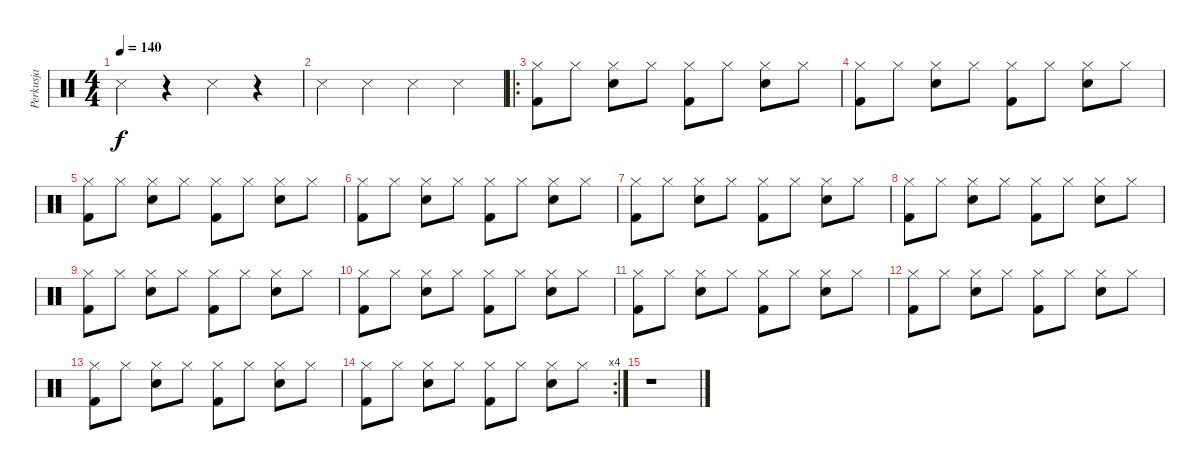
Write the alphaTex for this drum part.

\track ("Perkusja" "Perkusja") {instrument percussion}
\staff {score}
\articulation defaults
\ts (4 4)
\tempo 140
\clef neutral
\ks c "Snare (side stick) 3".4{dy f}
r.4 "Snare (side stick) 3".4 r.4 |
"Snare (side stick) 3".4 "Snare (side stick) 3".4 "Snare (side stick) 3".4 "Snare (side stick) 3".4 |
\ro
("Kick (hit) 2" "Hi-Hat (closed)").8 "Hi-Hat (closed)".8 ("Snare (hit) 2" "Hi-Hat (closed)").8 "Hi-Hat (closed)".8 ("Kick (hit) 2" "Hi-Hat (closed)").8 "Hi-Hat (closed)".8 ("Snare (hit) 2" "Hi-Hat (closed)").8 "Hi-Hat (closed)".8 |
("Kick (hit) 2" "Hi-Hat (closed)").8 "Hi-Hat (closed)".8 ("Snare (hit) 2" "Hi-Hat (closed)").8 "Hi-Hat (closed)".8 ("Kick (hit) 2" "Hi-Hat (closed)").8 "Hi-Hat (closed)".8 ("Snare (hit) 2" "Hi-Hat (closed)").8 "Hi-Hat (closed)".8 |
("Kick (hit) 2" "Hi-Hat (closed)").8 "Hi-Hat (closed)".8 ("Snare (hit) 2" "Hi-Hat (closed)").8 "Hi-Hat (closed)".8 ("Kick (hit) 2" "Hi-Hat (closed)").8 "Hi-Hat (closed)".8 ("Snare (hit) 2" "Hi-Hat (closed)").8 "Hi-Hat (closed)".8 |
("Kick (hit) 2" "Hi-Hat (closed)").8 "Hi-Hat (closed)".8 ("Snare (hit) 2" "Hi-Hat (closed)").8 "Hi-Hat (closed)".8 ("Kick (hit) 2" "Hi-Hat (closed)").8 "Hi-Hat (closed)".8 ("Snare (hit) 2" "Hi-Hat (closed)").8 "Hi-Hat (closed)".8 |
("Kick (hit) 2" "Hi-Hat (closed)").8 "Hi-Hat (closed)".8 ("Snare (hit) 2" "Hi-Hat (closed)").8 "Hi-Hat (closed)".8 ("Kick (hit) 2" "Hi-Hat (closed)").8 "Hi-Hat (closed)".8 ("Snare (hit) 2" "Hi-Hat (closed)").8 "Hi-Hat (closed)".8 |
("Kick (hit) 2" "Hi-Hat (closed)").8 "Hi-Hat (closed)".8 ("Snare (hit) 2" "Hi-Hat (closed)").8 "Hi-Hat (closed)".8 ("Kick (hit) 2" "Hi-Hat (closed)").8 "Hi-Hat (closed)".8 ("Snare (hit) 2" "Hi-Hat (closed)").8 "Hi-Hat (closed)".8 |
("Kick (hit) 2" "Hi-Hat (closed)").8 "Hi-Hat (closed)".8 ("Snare (hit) 2" "Hi-Hat (closed)").8 "Hi-Hat (closed)".8 ("Kick (hit) 2" "Hi-Hat (closed)").8 "Hi-Hat (closed)".8 ("Snare (hit) 2" "Hi-Hat (closed)").8 "Hi-Hat (closed)".8 |
("Kick (hit) 2" "Hi-Hat (closed)").8 "Hi-Hat (closed)".8 ("Snare (hit) 2" "Hi-Hat (closed)").8 "Hi-Hat (closed)".8 ("Kick (hit) 2" "Hi-Hat (closed)").8 "Hi-Hat (closed)".8 ("Snare (hit) 2" "Hi-Hat (closed)").8 "Hi-Hat (closed)".8 |
("Kick (hit) 2" "Hi-Hat (closed)").8 "Hi-Hat (closed)".8 ("Snare (hit) 2" "Hi-Hat (closed)").8 "Hi-Hat (closed)".8 ("Kick (hit) 2" "Hi-Hat (closed)").8 "Hi-Hat (closed)".8 ("Snare (hit) 2" "Hi-Hat (closed)").8 "Hi-Hat (closed)".8 |
("Kick (hit) 2" "Hi-Hat (closed)").8 "Hi-Hat (closed)".8 ("Snare (hit) 2" "Hi-Hat (closed)").8 "Hi-Hat (closed)".8 ("Kick (hit) 2" "Hi-Hat (closed)").8 "Hi-Hat (closed)".8 ("Snare (hit) 2" "Hi-Hat (closed)").8 "Hi-Hat (closed)".8 |
("Kick (hit) 2" "Hi-Hat (closed)").8 "Hi-Hat (closed)".8 ("Snare (hit) 2" "Hi-Hat (closed)").8 "Hi-Hat (closed)".8 ("Kick (hit) 2" "Hi-Hat (closed)").8 "Hi-Hat (closed)".8 ("Snare (hit) 2" "Hi-Hat (closed)").8 "Hi-Hat (closed)".8 |
\rc 4
("Kick (hit) 2" "Hi-Hat (closed)").8 "Hi-Hat (closed)".8 ("Snare (hit) 2" "Hi-Hat (closed)").8 "Hi-Hat (closed)".8 ("Kick (hit) 2" "Hi-Hat (closed)").8 "Hi-Hat (closed)".8 ("Snare (hit) 2" "Hi-Hat (closed)").8 "Hi-Hat (closed)".8 |
r.1
